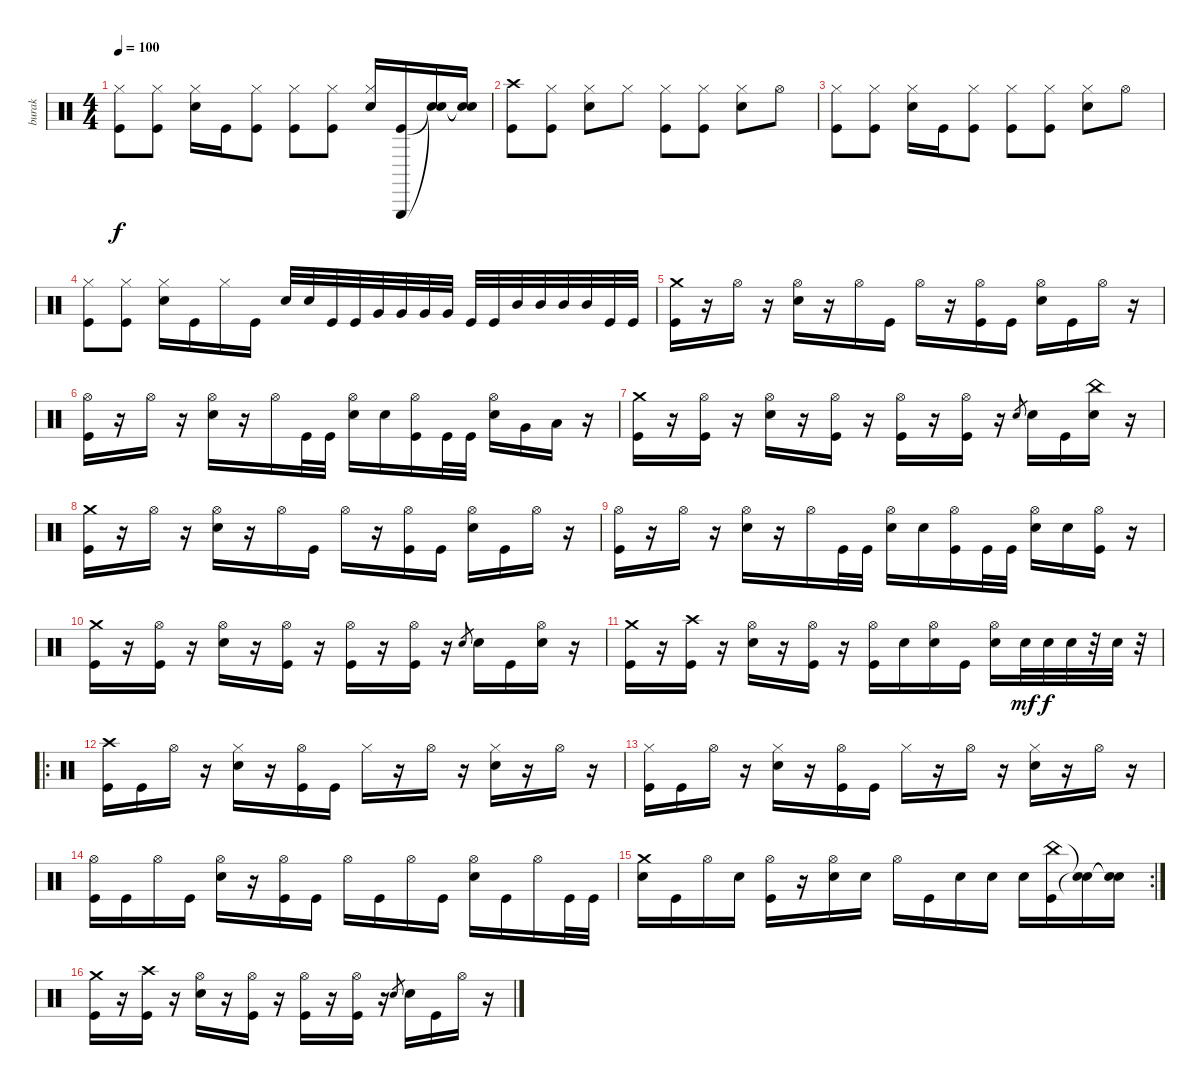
\track ("burak" "burak") {instrument percussion}
\staff {score}
\articulation defaults
\ts (4 4)
\tempo 100
\clef neutral
\ks c
("Hi-Hat (closed)" "Kick (hit)").8{dy f} ("Hi-Hat (closed)" "Kick (hit)").8 ("Hi-Hat (closed)" "Electric Snare (hit)").16 "Kick (hit)".16 ("Hi-Hat (closed)" "Kick (hit)").8 ("Hi-Hat (closed)" "Kick (hit)").8 ("Hi-Hat (closed)" "Kick (hit)").8 ("Hi-Hat (closed)" "Electric Snare (hit)").16 ("Triangle (hit)" "Kick (hit)").16 ("Snare (hit)"{t} "Snare (hit)"{t}).16 ("Snare (hit)"{t} "Snare (hit)"{t}).16 |
("Crash high (hit)" "Kick (hit)").8 ("Hi-Hat (closed)" "Kick (hit)").8 ("Hi-Hat (closed)" "Electric Snare (hit)").8 "Hi-Hat (closed)".8 ("Hi-Hat (closed)" "Kick (hit)").8 ("Hi-Hat (closed)" "Kick (hit)").8 ("Hi-Hat (closed)" "Electric Snare (hit)").8 "Hi-Hat (open)".8 |
("Hi-Hat (closed)" "Kick (hit)").8 ("Hi-Hat (closed)" "Kick (hit)").8 ("Hi-Hat (closed)" "Electric Snare (hit)").16 "Kick (hit)".16 ("Hi-Hat (closed)" "Kick (hit)").8 ("Hi-Hat (closed)" "Kick (hit)").8 ("Hi-Hat (closed)" "Kick (hit)").8 ("Hi-Hat (closed)" "Electric Snare (hit)").8 "Hi-Hat (open)".8 |
("Hi-Hat (closed)" "Kick (hit)").8 ("Hi-Hat (closed)" "Kick (hit)").8 ("Hi-Hat (closed)" "Electric Snare (hit)").16 "Kick (hit)".16 "Hi-Hat (closed)".16 "Kick (hit)".16 "Electric Snare (hit)".32 "Electric Snare (hit)".32 "Kick (hit)".32 "Kick (hit)".32 "Very Low Tom (hit)".32 "Very Low Tom (hit)".32 "Very Low Tom (hit)".32 "Very Low Tom (hit)".32 "Kick (hit)".32 "Kick (hit)".32 "Mid Tom (hit)".32 "Mid Tom (hit)".32 "Mid Tom (hit)".32 "Mid Tom (hit)".32 "Kick (hit)".32 "Kick (hit)".32 |
("Crash medium (hit)" "Kick (hit)").16 r.16 "Hi-Hat (open)".16 r.16 ("Hi-Hat (open)" "Electric Snare (hit)").16 r.16 "Hi-Hat (open)".16 "Kick (hit)".16 "Hi-Hat (open)".16 r.16 ("Hi-Hat (open)" "Kick (hit)").16 "Kick (hit)".16 ("Hi-Hat (open)" "Electric Snare (hit)").16 "Kick (hit)".16 "Hi-Hat (open)".16 r.16 |
("Hi-Hat (open)" "Kick (hit)").16 r.16 "Hi-Hat (open)".16 r.16 ("Hi-Hat (open)" "Electric Snare (hit)").16 r.16 "Hi-Hat (open)".16 "Kick (hit)".32 "Kick (hit)".32 ("Hi-Hat (open)" "Electric Snare (hit)").16 "Electric Snare (hit)".16 ("Hi-Hat (open)" "Kick (hit)").16 "Kick (hit)".32 "Kick (hit)".32 ("Hi-Hat (open)" "Electric Snare (hit)").16 "Very Low Tom (hit)".16 "Low Floor Tom (hit)".16 r.16 |
("Crash medium (hit)" "Kick (hit)").16 r.16 ("Hi-Hat (open)" "Kick (hit)").16 r.16 ("Hi-Hat (open)" "Electric Snare (hit)").16 r.16 ("Hi-Hat (open)" "Kick (hit)").16 r.16 ("Hi-Hat (open)" "Kick (hit)").16 r.16 ("Hi-Hat (open)" "Kick (hit)").16 r.16 "Electric Snare (hit)".8{gr} "Electric Snare (hit)".16 "Kick (hit)".16 ("China (hit)" "Electric Snare (hit)").16 r.16 |
("Crash medium (hit)" "Kick (hit)").16 r.16 "Hi-Hat (open)".16 r.16 ("Hi-Hat (open)" "Electric Snare (hit)").16 r.16 "Hi-Hat (open)".16 "Kick (hit)".16 "Hi-Hat (open)".16 r.16 ("Hi-Hat (open)" "Kick (hit)").16 "Kick (hit)".16 ("Hi-Hat (open)" "Electric Snare (hit)").16 "Kick (hit)".16 "Hi-Hat (open)".16 r.16 |
("Hi-Hat (open)" "Kick (hit)").16 r.16 "Hi-Hat (open)".16 r.16 ("Hi-Hat (open)" "Electric Snare (hit)").16 r.16 "Hi-Hat (open)".16 "Kick (hit)".32 "Kick (hit)".32 ("Hi-Hat (open)" "Electric Snare (hit)").16 "Electric Snare (hit)".16 ("Hi-Hat (open)" "Kick (hit)").16 "Kick (hit)".32 "Kick (hit)".32 ("Hi-Hat (open)" "Electric Snare (hit)").16 "Electric Snare (hit)".16 ("Hi-Hat (open)" "Kick (hit)").16 r.16 |
("Crash medium (hit)" "Kick (hit)").16 r.16 ("Hi-Hat (open)" "Kick (hit)").16 r.16 ("Hi-Hat (open)" "Electric Snare (hit)").16 r.16 ("Hi-Hat (open)" "Kick (hit)").16 r.16 ("Hi-Hat (open)" "Kick (hit)").16 r.16 ("Hi-Hat (open)" "Kick (hit)").16 r.16 "Electric Snare (hit)".8{gr} "Electric Snare (hit)".16 "Kick (hit)".16 ("Hi-Hat (open)" "Electric Snare (hit)").16 r.16 |
("Crash medium (hit)" "Kick (hit)").16 r.16 ("Crash high (hit)" "Kick (hit)").16 r.16 ("Hi-Hat (open)" "Electric Snare (hit)").16 r.16 ("Hi-Hat (open)" "Kick (hit)").16 r.16 ("Hi-Hat (open)" "Kick (hit)").16 "Electric Snare (hit)".16 ("Hi-Hat (open)" "Electric Snare (hit)").16 "Kick (hit)".16 ("Hi-Hat (open)" "Electric Snare (hit)").16 "Electric Snare (hit)".32{dy mf} "Electric Snare (hit)".32{dy f} "Electric Snare (hit)".32 r.32 "Electric Snare (hit)".32 r.32 |
\ro
("Crash high (hit)" "Kick (hit)").16 "Kick (hit)".16 "Hi-Hat (open)".16 r.16 ("Hi-Hat (closed)" "Electric Snare (hit)").16 r.16 ("Hi-Hat (open)" "Kick (hit)").16 "Kick (hit)".16 "Hi-Hat (closed)".16 r.16 "Hi-Hat (open)".16 r.16 ("Hi-Hat (closed)" "Electric Snare (hit)").16 r.16 "Hi-Hat (open)".16 r.16 |
("Hi-Hat (closed)" "Kick (hit)").16 "Kick (hit)".16 "Hi-Hat (open)".16 r.16 ("Hi-Hat (closed)" "Electric Snare (hit)").16 r.16 ("Hi-Hat (open)" "Kick (hit)").16 "Kick (hit)".16 "Hi-Hat (closed)".16 r.16 "Hi-Hat (open)".16 r.16 ("Hi-Hat (closed)" "Electric Snare (hit)").16 r.16 "Hi-Hat (open)".16 r.16 |
("Hi-Hat (open)" "Kick (hit)").16 "Kick (hit)".16 "Hi-Hat (open)".16 "Kick (hit)".16 ("Hi-Hat (open)" "Electric Snare (hit)").16 r.16 ("Hi-Hat (open)" "Kick (hit)").16 "Kick (hit)".16 "Hi-Hat (open)".16 "Kick (hit)".16 "Hi-Hat (open)".16 "Kick (hit)".16 ("Hi-Hat (open)" "Electric Snare (hit)").16 "Kick (hit)".16 "Hi-Hat (open)".16 "Kick (hit)".32 "Kick (hit)".32 |
\rc 2
("Crash medium (hit)" "Electric Snare (hit)").16 "Kick (hit)".16 "Hi-Hat (open)".16 "Electric Snare (hit)".16 ("Hi-Hat (open)" "Kick (hit)").16 r.16 ("Hi-Hat (open)" "Electric Snare (hit)").16 "Electric Snare (hit)".16 "Hi-Hat (open)".16 "Kick (hit)".16 "Electric Snare (hit)".16 "Electric Snare (hit)".16 "Electric Snare (hit)".16 ("China (hit)" "Kick (hit)").16 ("Snare (hit)"{t} "Snare (hit)"{t}).16 ("Snare (hit)"{t} "Snare (hit)"{t}).16 |
("Crash medium (hit)" "Kick (hit)").16 r.16 ("Crash high (hit)" "Kick (hit)").16 r.16 ("Hi-Hat (open)" "Electric Snare (hit)").16 r.16 ("Hi-Hat (open)" "Kick (hit)").16 r.16 ("Hi-Hat (open)" "Kick (hit)").16 r.16 ("Hi-Hat (open)" "Kick (hit)").16 r.16 "Electric Snare (hit)".8{gr} "Electric Snare (hit)".16 "Kick (hit)".16 "Hi-Hat (open)".16 r.16
